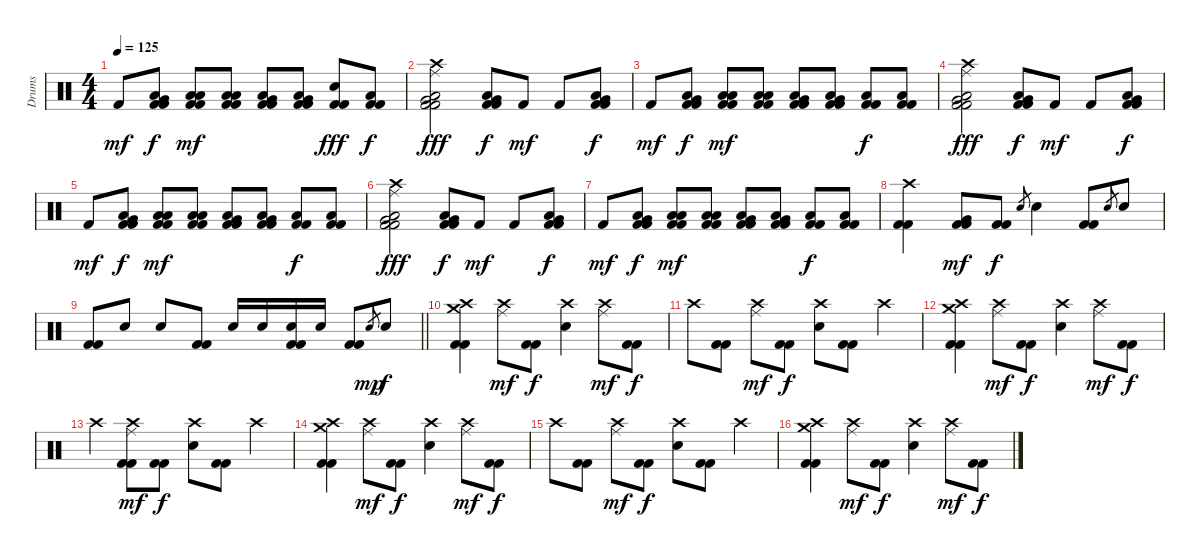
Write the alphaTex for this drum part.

\track ("Drums" "Drums") {instrument percussion}
\staff {score}
\articulation defaults
\ts (4 4)
\tempo 125
\clef neutral
\ks c "Kick (hit) 2".8{dy mf}
("Very Low Tom (hit)" "Low Floor Tom (hit)" "Kick (hit) 2" "Kick (hit) 2").8{dy f} ("Low Tom (hit)" "Low Floor Tom (hit)" "Kick (hit) 2" "Kick (hit) 2").8{dy mf} ("Low Tom (hit)" "Low Floor Tom (hit)" "Kick (hit) 2" "Kick (hit) 2").8 ("Very Low Tom (hit)" "Low Floor Tom (hit)" "Kick (hit) 2" "Kick (hit) 2").8 ("Very Low Tom (hit)" "Low Floor Tom (hit)" "Kick (hit) 2" "Kick (hit) 2").8 ("Electric Snare (hit)" "Kick (hit) 2" "Kick (hit) 2").8{dy fff} ("Low Floor Tom (hit)" "Kick (hit) 2" "Kick (hit) 2").8{dy f} |
("Crash high (hit)" "Ride (middle)" "Very Low Tom (hit)" "Low Floor Tom (hit)" "Kick (hit) 2" "Kick (hit) 2").2{dy fff} ("Very Low Tom (hit)" "Low Floor Tom (hit)" "Kick (hit) 2" "Kick (hit) 2").8{dy f} "Kick (hit) 2".8{dy mf} "Kick (hit) 2".8 ("Very Low Tom (hit)" "Low Floor Tom (hit)" "Kick (hit) 2" "Kick (hit) 2").8{dy f} |
"Kick (hit) 2".8{dy mf} ("Very Low Tom (hit)" "Low Floor Tom (hit)" "Kick (hit) 2" "Kick (hit) 2").8{dy f} ("Low Tom (hit)" "Low Floor Tom (hit)" "Kick (hit) 2" "Kick (hit) 2").8{dy mf} ("Low Tom (hit)" "Low Floor Tom (hit)" "Kick (hit) 2" "Kick (hit) 2").8 ("Very Low Tom (hit)" "Low Floor Tom (hit)" "Kick (hit) 2" "Kick (hit) 2").8 ("Very Low Tom (hit)" "Low Floor Tom (hit)" "Kick (hit) 2" "Kick (hit) 2").8 ("Low Floor Tom (hit)" "Kick (hit) 2" "Kick (hit) 2").8{dy f} ("Low Floor Tom (hit)" "Kick (hit) 2" "Kick (hit) 2").8 |
("Crash high (hit)" "Ride (middle)" "Very Low Tom (hit)" "Low Floor Tom (hit)" "Kick (hit) 2" "Kick (hit) 2").2{dy fff} ("Very Low Tom (hit)" "Low Floor Tom (hit)" "Kick (hit) 2" "Kick (hit) 2").8{dy f} "Kick (hit) 2".8{dy mf} "Kick (hit) 2".8 ("Very Low Tom (hit)" "Low Floor Tom (hit)" "Kick (hit) 2" "Kick (hit) 2").8{dy f} |
"Kick (hit) 2".8{dy mf} ("Very Low Tom (hit)" "Low Floor Tom (hit)" "Kick (hit) 2" "Kick (hit) 2").8{dy f} ("Low Tom (hit)" "Low Floor Tom (hit)" "Kick (hit) 2" "Kick (hit) 2").8{dy mf} ("Low Tom (hit)" "Low Floor Tom (hit)" "Kick (hit) 2" "Kick (hit) 2").8 ("Very Low Tom (hit)" "Low Floor Tom (hit)" "Kick (hit) 2" "Kick (hit) 2").8 ("Very Low Tom (hit)" "Low Floor Tom (hit)" "Kick (hit) 2" "Kick (hit) 2").8 ("Low Floor Tom (hit)" "Kick (hit) 2" "Kick (hit) 2").8{dy f} ("Low Floor Tom (hit)" "Kick (hit) 2" "Kick (hit) 2").8 |
("Crash high (hit)" "Ride (middle)" "Very Low Tom (hit)" "Low Floor Tom (hit)" "Kick (hit) 2" "Kick (hit) 2").2{dy fff} ("Very Low Tom (hit)" "Low Floor Tom (hit)" "Kick (hit) 2" "Kick (hit) 2").8{dy f} "Kick (hit) 2".8{dy mf} "Kick (hit) 2".8 ("Very Low Tom (hit)" "Low Floor Tom (hit)" "Kick (hit) 2" "Kick (hit) 2").8{dy f} |
"Kick (hit) 2".8{dy mf} ("Very Low Tom (hit)" "Low Floor Tom (hit)" "Kick (hit) 2" "Kick (hit) 2").8{dy f} ("Low Tom (hit)" "Low Floor Tom (hit)" "Kick (hit) 2" "Kick (hit) 2").8{dy mf} ("Low Tom (hit)" "Low Floor Tom (hit)" "Kick (hit) 2" "Kick (hit) 2").8 ("Very Low Tom (hit)" "Low Floor Tom (hit)" "Kick (hit) 2" "Kick (hit) 2").8 ("Very Low Tom (hit)" "Low Floor Tom (hit)" "Kick (hit) 2" "Kick (hit) 2").8 ("Low Floor Tom (hit)" "Kick (hit) 2" "Kick (hit) 2").8{dy f} ("Low Floor Tom (hit)" "Kick (hit) 2" "Kick (hit) 2").8 |
("Crash high (hit)" "Kick (hit) 2" "Kick (hit) 2").4 ("Very Low Tom (hit)" "Kick (hit) 2" "Kick (hit) 2").8{dy mf} ("Kick (hit) 2" "Kick (hit) 2").8{dy f} "Electric Snare (hit)".8{gr} "Electric Snare (hit)".4 ("Kick (hit) 2" "Kick (hit) 2").8 "Electric Snare (hit)".8{gr} "Electric Snare (hit)".8 |
\barLineRight lightlight
("Kick (hit) 2" "Kick (hit) 2").8 "Electric Snare (hit)".8 "Electric Snare (hit)".8 ("Kick (hit) 2" "Kick (hit) 2").8 "Electric Snare (hit)".16 "Electric Snare (hit)".16 ("Electric Snare (hit)" "Kick (hit) 2" "Kick (hit) 2").16 "Electric Snare (hit)".16 ("Kick (hit) 2" "Kick (hit) 2").8 "Electric Snare (hit)".8{gr dy mp} "Electric Snare (hit)".8{dy f} |
("Crash high (hit)" "Crash medium (hit)" "Kick (hit) 2" "Kick (hit) 2").4 ("Crash high (hit)" "Ride (middle)").8{dy mf} ("Kick (hit) 2" "Kick (hit) 2").8{dy f} ("Crash high (hit)" "Electric Snare (hit)").4 ("Crash high (hit)" "Ride (middle)").8{dy mf} ("Kick (hit) 2" "Kick (hit) 2").8{dy f} |
"Crash high (hit)".8 ("Kick (hit) 2" "Kick (hit) 2").8 ("Crash high (hit)" "Ride (middle)").8{dy mf} ("Kick (hit) 2" "Kick (hit) 2").8{dy f} ("Crash high (hit)" "Electric Snare (hit)").8 ("Kick (hit) 2" "Kick (hit) 2").8 "Crash high (hit)".4 |
("Crash high (hit)" "Crash medium (hit)" "Kick (hit) 2" "Kick (hit) 2").4 ("Crash high (hit)" "Ride (middle)").8{dy mf} ("Kick (hit) 2" "Kick (hit) 2").8{dy f} ("Crash high (hit)" "Electric Snare (hit)").4 ("Crash high (hit)" "Ride (middle)").8{dy mf} ("Kick (hit) 2" "Kick (hit) 2").8{dy f} |
"Crash high (hit)".4 ("Crash high (hit)" "Ride (middle)" "Kick (hit) 2" "Kick (hit) 2").8{dy mf} ("Kick (hit) 2" "Kick (hit) 2").8{dy f} ("Crash high (hit)" "Electric Snare (hit)").8 ("Kick (hit) 2" "Kick (hit) 2").8 "Crash high (hit)".4 |
("Crash high (hit)" "Crash medium (hit)" "Kick (hit) 2" "Kick (hit) 2").4 ("Crash high (hit)" "Ride (middle)").8{dy mf} ("Kick (hit) 2" "Kick (hit) 2").8{dy f} ("Crash high (hit)" "Electric Snare (hit)").4 ("Crash high (hit)" "Ride (middle)").8{dy mf} ("Kick (hit) 2" "Kick (hit) 2").8{dy f} |
"Crash high (hit)".8 ("Kick (hit) 2" "Kick (hit) 2").8 ("Crash high (hit)" "Ride (middle)").8{dy mf} ("Kick (hit) 2" "Kick (hit) 2").8{dy f} ("Crash high (hit)" "Electric Snare (hit)").8 ("Kick (hit) 2" "Kick (hit) 2").8 "Crash high (hit)".4 |
("Crash high (hit)" "Crash medium (hit)" "Kick (hit) 2" "Kick (hit) 2").4 ("Crash high (hit)" "Ride (middle)").8{dy mf} ("Kick (hit) 2" "Kick (hit) 2").8{dy f} ("Crash high (hit)" "Electric Snare (hit)").4 ("Crash high (hit)" "Ride (middle)").8{dy mf} ("Kick (hit) 2" "Kick (hit) 2").8{dy f}
